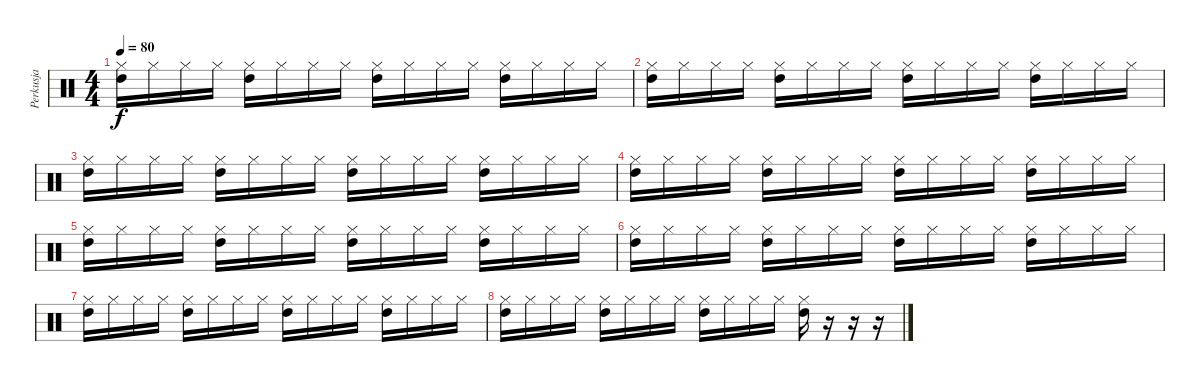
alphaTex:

\track ("Perkusja" "Perkusja") {instrument percussion}
\staff {score}
\articulation defaults
\ts (4 4)
\tempo 80
\clef neutral
\ks c
("Hi-Hat (closed)" "High Tom (hit)").16{dy f} "Hi-Hat (closed)".16 "Hi-Hat (closed)".16 "Hi-Hat (closed)".16 ("Hi-Hat (closed)" "High Tom (hit)").16 "Hi-Hat (closed)".16 "Hi-Hat (closed)".16 "Hi-Hat (closed)".16 ("Hi-Hat (closed)" "High Tom (hit)").16 "Hi-Hat (closed)".16 "Hi-Hat (closed)".16 "Hi-Hat (closed)".16 ("Hi-Hat (closed)" "High Tom (hit)").16 "Hi-Hat (closed)".16 "Hi-Hat (closed)".16 "Hi-Hat (closed)".16 |
("Hi-Hat (closed)" "High Tom (hit)").16 "Hi-Hat (closed)".16 "Hi-Hat (closed)".16 "Hi-Hat (closed)".16 ("Hi-Hat (closed)" "High Tom (hit)").16 "Hi-Hat (closed)".16 "Hi-Hat (closed)".16 "Hi-Hat (closed)".16 ("Hi-Hat (closed)" "High Tom (hit)").16 "Hi-Hat (closed)".16 "Hi-Hat (closed)".16 "Hi-Hat (closed)".16 ("Hi-Hat (closed)" "High Tom (hit)").16 "Hi-Hat (closed)".16 "Hi-Hat (closed)".16 "Hi-Hat (closed)".16 |
("Hi-Hat (closed)" "High Tom (hit)").16 "Hi-Hat (closed)".16 "Hi-Hat (closed)".16 "Hi-Hat (closed)".16 ("Hi-Hat (closed)" "High Tom (hit)").16 "Hi-Hat (closed)".16 "Hi-Hat (closed)".16 "Hi-Hat (closed)".16 ("Hi-Hat (closed)" "High Tom (hit)").16 "Hi-Hat (closed)".16 "Hi-Hat (closed)".16 "Hi-Hat (closed)".16 ("Hi-Hat (closed)" "High Tom (hit)").16 "Hi-Hat (closed)".16 "Hi-Hat (closed)".16 "Hi-Hat (closed)".16 |
("Hi-Hat (closed)" "High Tom (hit)").16 "Hi-Hat (closed)".16 "Hi-Hat (closed)".16 "Hi-Hat (closed)".16 ("Hi-Hat (closed)" "High Tom (hit)").16 "Hi-Hat (closed)".16 "Hi-Hat (closed)".16 "Hi-Hat (closed)".16 ("Hi-Hat (closed)" "High Tom (hit)").16 "Hi-Hat (closed)".16 "Hi-Hat (closed)".16 "Hi-Hat (closed)".16 ("Hi-Hat (closed)" "High Tom (hit)").16 "Hi-Hat (closed)".16 "Hi-Hat (closed)".16 "Hi-Hat (closed)".16 |
("Hi-Hat (closed)" "High Tom (hit)").16 "Hi-Hat (closed)".16 "Hi-Hat (closed)".16 "Hi-Hat (closed)".16 ("Hi-Hat (closed)" "High Tom (hit)").16 "Hi-Hat (closed)".16 "Hi-Hat (closed)".16 "Hi-Hat (closed)".16 ("Hi-Hat (closed)" "High Tom (hit)").16 "Hi-Hat (closed)".16 "Hi-Hat (closed)".16 "Hi-Hat (closed)".16 ("Hi-Hat (closed)" "High Tom (hit)").16 "Hi-Hat (closed)".16 "Hi-Hat (closed)".16 "Hi-Hat (closed)".16 |
("Hi-Hat (closed)" "High Tom (hit)").16 "Hi-Hat (closed)".16 "Hi-Hat (closed)".16 "Hi-Hat (closed)".16 ("Hi-Hat (closed)" "High Tom (hit)").16 "Hi-Hat (closed)".16 "Hi-Hat (closed)".16 "Hi-Hat (closed)".16 ("Hi-Hat (closed)" "High Tom (hit)").16 "Hi-Hat (closed)".16 "Hi-Hat (closed)".16 "Hi-Hat (closed)".16 ("Hi-Hat (closed)" "High Tom (hit)").16 "Hi-Hat (closed)".16 "Hi-Hat (closed)".16 "Hi-Hat (closed)".16 |
("Hi-Hat (closed)" "High Tom (hit)").16 "Hi-Hat (closed)".16 "Hi-Hat (closed)".16 "Hi-Hat (closed)".16 ("Hi-Hat (closed)" "High Tom (hit)").16 "Hi-Hat (closed)".16 "Hi-Hat (closed)".16 "Hi-Hat (closed)".16 ("Hi-Hat (closed)" "High Tom (hit)").16 "Hi-Hat (closed)".16 "Hi-Hat (closed)".16 "Hi-Hat (closed)".16 ("Hi-Hat (closed)" "High Tom (hit)").16 "Hi-Hat (closed)".16 "Hi-Hat (closed)".16 "Hi-Hat (closed)".16 |
("Hi-Hat (closed)" "High Tom (hit)").16 "Hi-Hat (closed)".16 "Hi-Hat (closed)".16 "Hi-Hat (closed)".16 ("Hi-Hat (closed)" "High Tom (hit)").16 "Hi-Hat (closed)".16 "Hi-Hat (closed)".16 "Hi-Hat (closed)".16 ("Hi-Hat (closed)" "High Tom (hit)").16 "Hi-Hat (closed)".16 "Hi-Hat (closed)".16 "Hi-Hat (closed)".16 ("Hi-Hat (closed)" "High Tom (hit)").16 r.16 r.16 r.16
